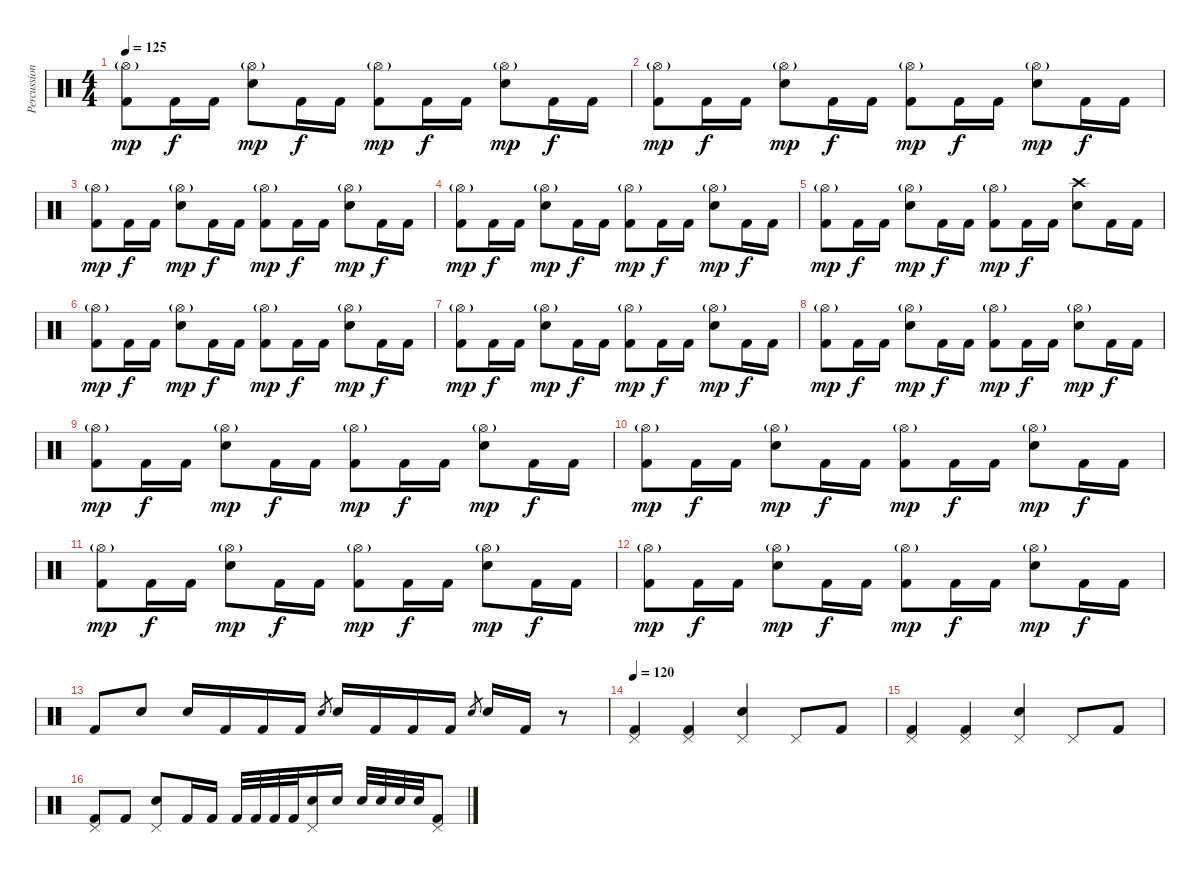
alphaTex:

\track ("Percussion" "Percussion") {instrument percussion}
\staff {score}
\articulation defaults
\ts (4 4)
\tempo 125
\clef neutral
\ks c
("Hi-Hat (open)"{g} "Kick (hit) 2").8{dy mp} "Kick (hit) 2".16{dy f} "Kick (hit) 2".16 ("Hi-Hat (open)"{g} "Electric Snare (hit)").8{dy mp} "Kick (hit) 2".16{dy f} "Kick (hit) 2".16 ("Hi-Hat (open)"{g} "Kick (hit) 2").8{dy mp} "Kick (hit) 2".16{dy f} "Kick (hit) 2".16 ("Hi-Hat (open)"{g} "Electric Snare (hit)").8{dy mp} "Kick (hit) 2".16{dy f} "Kick (hit) 2".16 |
("Hi-Hat (open)"{g} "Kick (hit) 2").8{dy mp} "Kick (hit) 2".16{dy f} "Kick (hit) 2".16 ("Hi-Hat (open)"{g} "Electric Snare (hit)").8{dy mp} "Kick (hit) 2".16{dy f} "Kick (hit) 2".16 ("Hi-Hat (open)"{g} "Kick (hit) 2").8{dy mp} "Kick (hit) 2".16{dy f} "Kick (hit) 2".16 ("Hi-Hat (open)"{g} "Electric Snare (hit)").8{dy mp} "Kick (hit) 2".16{dy f} "Kick (hit) 2".16 |
("Hi-Hat (open)"{g} "Kick (hit) 2").8{dy mp} "Kick (hit) 2".16{dy f} "Kick (hit) 2".16 ("Hi-Hat (open)"{g} "Electric Snare (hit)").8{dy mp} "Kick (hit) 2".16{dy f} "Kick (hit) 2".16 ("Hi-Hat (open)"{g} "Kick (hit) 2").8{dy mp} "Kick (hit) 2".16{dy f} "Kick (hit) 2".16 ("Hi-Hat (open)"{g} "Electric Snare (hit)").8{dy mp} "Kick (hit) 2".16{dy f} "Kick (hit) 2".16 |
("Hi-Hat (open)"{g} "Kick (hit) 2").8{dy mp} "Kick (hit) 2".16{dy f} "Kick (hit) 2".16 ("Hi-Hat (open)"{g} "Electric Snare (hit)").8{dy mp} "Kick (hit) 2".16{dy f} "Kick (hit) 2".16 ("Hi-Hat (open)"{g} "Kick (hit) 2").8{dy mp} "Kick (hit) 2".16{dy f} "Kick (hit) 2".16 ("Hi-Hat (open)"{g} "Electric Snare (hit)").8{dy mp} "Kick (hit) 2".16{dy f} "Kick (hit) 2".16 |
("Hi-Hat (open)"{g} "Kick (hit) 2").8{dy mp} "Kick (hit) 2".16{dy f} "Kick (hit) 2".16 ("Hi-Hat (open)"{g} "Electric Snare (hit)").8{dy mp} "Kick (hit) 2".16{dy f} "Kick (hit) 2".16 ("Hi-Hat (open)"{g} "Kick (hit) 2").8{dy mp} "Kick (hit) 2".16{dy f} "Kick (hit) 2".16 ("Crash high (hit)" "Electric Snare (hit)").8 "Kick (hit) 2".16 "Kick (hit) 2".16 |
("Hi-Hat (open)"{g} "Kick (hit) 2").8{dy mp} "Kick (hit) 2".16{dy f} "Kick (hit) 2".16 ("Hi-Hat (open)"{g} "Electric Snare (hit)").8{dy mp} "Kick (hit) 2".16{dy f} "Kick (hit) 2".16 ("Hi-Hat (open)"{g} "Kick (hit) 2").8{dy mp} "Kick (hit) 2".16{dy f} "Kick (hit) 2".16 ("Hi-Hat (open)"{g} "Electric Snare (hit)").8{dy mp} "Kick (hit) 2".16{dy f} "Kick (hit) 2".16 |
("Hi-Hat (open)"{g} "Kick (hit) 2").8{dy mp} "Kick (hit) 2".16{dy f} "Kick (hit) 2".16 ("Hi-Hat (open)"{g} "Electric Snare (hit)").8{dy mp} "Kick (hit) 2".16{dy f} "Kick (hit) 2".16 ("Hi-Hat (open)"{g} "Kick (hit) 2").8{dy mp} "Kick (hit) 2".16{dy f} "Kick (hit) 2".16 ("Hi-Hat (open)"{g} "Electric Snare (hit)").8{dy mp} "Kick (hit) 2".16{dy f} "Kick (hit) 2".16 |
("Hi-Hat (open)"{g} "Kick (hit) 2").8{dy mp} "Kick (hit) 2".16{dy f} "Kick (hit) 2".16 ("Hi-Hat (open)"{g} "Electric Snare (hit)").8{dy mp} "Kick (hit) 2".16{dy f} "Kick (hit) 2".16 ("Hi-Hat (open)"{g} "Kick (hit) 2").8{dy mp} "Kick (hit) 2".16{dy f} "Kick (hit) 2".16 ("Hi-Hat (open)"{g} "Electric Snare (hit)").8{dy mp} "Kick (hit) 2".16{dy f} "Kick (hit) 2".16 |
("Hi-Hat (open)"{g} "Kick (hit) 2").8{dy mp} "Kick (hit) 2".16{dy f} "Kick (hit) 2".16 ("Hi-Hat (open)"{g} "Electric Snare (hit)").8{dy mp} "Kick (hit) 2".16{dy f} "Kick (hit) 2".16 ("Hi-Hat (open)"{g} "Kick (hit) 2").8{dy mp} "Kick (hit) 2".16{dy f} "Kick (hit) 2".16 ("Hi-Hat (open)"{g} "Electric Snare (hit)").8{dy mp} "Kick (hit) 2".16{dy f} "Kick (hit) 2".16 |
("Hi-Hat (open)"{g} "Kick (hit) 2").8{dy mp} "Kick (hit) 2".16{dy f} "Kick (hit) 2".16 ("Hi-Hat (open)"{g} "Electric Snare (hit)").8{dy mp} "Kick (hit) 2".16{dy f} "Kick (hit) 2".16 ("Hi-Hat (open)"{g} "Kick (hit) 2").8{dy mp} "Kick (hit) 2".16{dy f} "Kick (hit) 2".16 ("Hi-Hat (open)"{g} "Electric Snare (hit)").8{dy mp} "Kick (hit) 2".16{dy f} "Kick (hit) 2".16 |
("Hi-Hat (open)"{g} "Kick (hit) 2").8{dy mp} "Kick (hit) 2".16{dy f} "Kick (hit) 2".16 ("Hi-Hat (open)"{g} "Electric Snare (hit)").8{dy mp} "Kick (hit) 2".16{dy f} "Kick (hit) 2".16 ("Hi-Hat (open)"{g} "Kick (hit) 2").8{dy mp} "Kick (hit) 2".16{dy f} "Kick (hit) 2".16 ("Hi-Hat (open)"{g} "Electric Snare (hit)").8{dy mp} "Kick (hit) 2".16{dy f} "Kick (hit) 2".16 |
("Hi-Hat (open)"{g} "Kick (hit) 2").8{dy mp} "Kick (hit) 2".16{dy f} "Kick (hit) 2".16 ("Hi-Hat (open)"{g} "Electric Snare (hit)").8{dy mp} "Kick (hit) 2".16{dy f} "Kick (hit) 2".16 ("Hi-Hat (open)"{g} "Kick (hit) 2").8{dy mp} "Kick (hit) 2".16{dy f} "Kick (hit) 2".16 ("Hi-Hat (open)"{g} "Electric Snare (hit)").8{dy mp} "Kick (hit) 2".16{dy f} "Kick (hit) 2".16 |
"Kick (hit) 2".8 "Electric Snare (hit)".8 "Electric Snare (hit)".16 "Kick (hit) 2".16 "Kick (hit) 2".16 "Kick (hit) 2".16 "Electric Snare (hit)".8{gr} "Electric Snare (hit)".16 "Kick (hit) 2".16 "Kick (hit) 2".16 "Kick (hit) 2".16 "Electric Snare (hit)".8{gr} "Electric Snare (hit)".16 "Kick (hit) 2".16 r.8 |
\tempo 120
("Pedal Hi-Hat (hit)" "Kick (hit) 2").4 ("Pedal Hi-Hat (hit)" "Kick (hit) 2").4 ("Pedal Hi-Hat (hit)" "Electric Snare (hit)").4 "Pedal Hi-Hat (hit)".8 "Kick (hit) 2".8 |
("Pedal Hi-Hat (hit)" "Kick (hit) 2").4 ("Pedal Hi-Hat (hit)" "Kick (hit) 2").4 ("Pedal Hi-Hat (hit)" "Electric Snare (hit)").4 "Pedal Hi-Hat (hit)".8 "Kick (hit) 2".8 |
("Pedal Hi-Hat (hit)" "Kick (hit) 2").8 "Kick (hit) 2".8 ("Pedal Hi-Hat (hit)" "Electric Snare (hit)").8 "Kick (hit) 2".16 "Kick (hit) 2".16 "Kick (hit) 2".32 "Kick (hit) 2".32 "Kick (hit) 2".32 "Kick (hit) 2".32 ("Pedal Hi-Hat (hit)" "Electric Snare (hit)").16 "Electric Snare (hit)".16 "Electric Snare (hit)".32 "Electric Snare (hit)".32 "Electric Snare (hit)".32 "Electric Snare (hit)".32 ("Pedal Hi-Hat (hit)" "Kick (hit) 2").8
